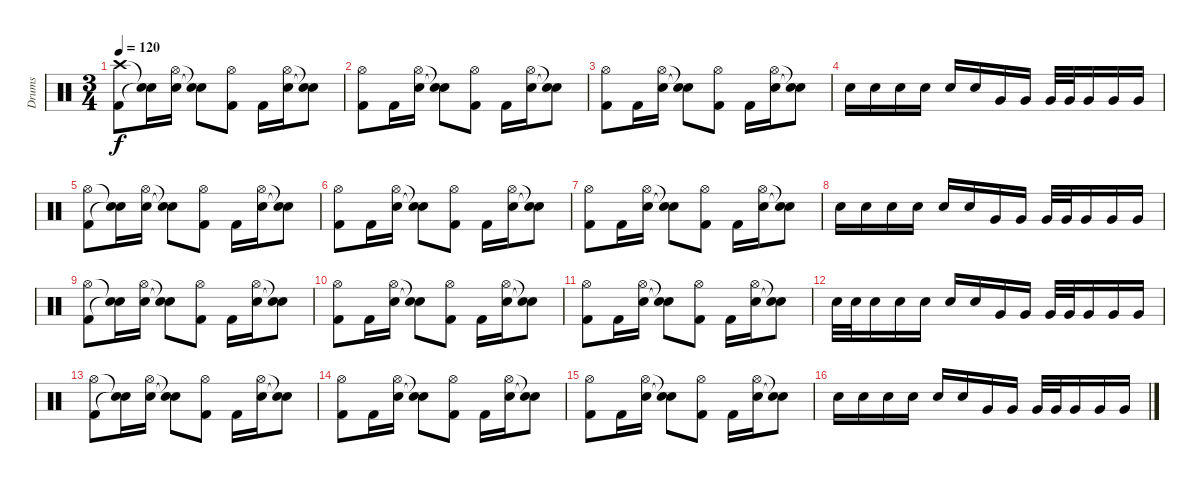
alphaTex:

\track ("Drums" "Drums") {instrument percussion}
\staff {score}
\articulation defaults
\ts (3 4)
\tempo 120
\clef neutral
\ks c
("Crash high (hit)" "Kick (hit) 2").8{dy f} ("Snare (hit)"{t} "Snare (hit)"{t}).16 ("Hi-Hat (open)" "Electric Snare (hit)").16 ("Snare (hit)"{t} "Snare (hit)"{t}).8 ("Hi-Hat (open)" "Kick (hit) 2").8 "Kick (hit) 2".16 ("Hi-Hat (open)" "Electric Snare (hit)").16 ("Snare (hit)"{t} "Snare (hit)"{t}).8 |
("Hi-Hat (open)" "Kick (hit) 2").8 "Kick (hit) 2".16 ("Hi-Hat (open)" "Electric Snare (hit)").16 ("Snare (hit)"{t} "Snare (hit)"{t}).8 ("Hi-Hat (open)" "Kick (hit) 2").8 "Kick (hit) 2".16 ("Hi-Hat (open)" "Electric Snare (hit)").16 ("Snare (hit)"{t} "Snare (hit)"{t}).8 |
("Hi-Hat (open)" "Kick (hit) 2").8 "Kick (hit) 2".16 ("Hi-Hat (open)" "Electric Snare (hit)").16 ("Snare (hit)"{t} "Snare (hit)"{t}).8 ("Hi-Hat (open)" "Kick (hit) 2").8 "Kick (hit) 2".16 ("Hi-Hat (open)" "Electric Snare (hit)").16 ("Snare (hit)"{t} "Snare (hit)"{t}).8 |
"Electric Snare (hit)".16 "Electric Snare (hit)".16 "Electric Snare (hit)".16 "Electric Snare (hit)".16 "Electric Snare (hit)".16 "Electric Snare (hit)".16 "Very Low Tom (hit)".16 "Very Low Tom (hit)".16 "Very Low Tom (hit)".32 "Very Low Tom (hit)".32 "Very Low Tom (hit)".16 "Very Low Tom (hit)".16 "Very Low Tom (hit)".16 |
("Hi-Hat (open)" "Kick (hit) 2").8 ("Snare (hit)"{t} "Snare (hit)"{t}).16 ("Hi-Hat (open)" "Electric Snare (hit)").16 ("Snare (hit)"{t} "Snare (hit)"{t}).8 ("Hi-Hat (open)" "Kick (hit) 2").8 "Kick (hit) 2".16 ("Hi-Hat (open)" "Electric Snare (hit)").16 ("Snare (hit)"{t} "Snare (hit)"{t}).8 |
("Hi-Hat (open)" "Kick (hit) 2").8 "Kick (hit) 2".16 ("Hi-Hat (open)" "Electric Snare (hit)").16 ("Snare (hit)"{t} "Snare (hit)"{t}).8 ("Hi-Hat (open)" "Kick (hit) 2").8 "Kick (hit) 2".16 ("Hi-Hat (open)" "Electric Snare (hit)").16 ("Snare (hit)"{t} "Snare (hit)"{t}).8 |
("Hi-Hat (open)" "Kick (hit) 2").8 "Kick (hit) 2".16 ("Hi-Hat (open)" "Electric Snare (hit)").16 ("Snare (hit)"{t} "Snare (hit)"{t}).8 ("Hi-Hat (open)" "Kick (hit) 2").8 "Kick (hit) 2".16 ("Hi-Hat (open)" "Electric Snare (hit)").16 ("Snare (hit)"{t} "Snare (hit)"{t}).8 |
"Electric Snare (hit)".16 "Electric Snare (hit)".16 "Electric Snare (hit)".16 "Electric Snare (hit)".16 "Electric Snare (hit)".16 "Electric Snare (hit)".16 "Very Low Tom (hit)".16 "Very Low Tom (hit)".16 "Very Low Tom (hit)".32 "Very Low Tom (hit)".32 "Very Low Tom (hit)".16 "Very Low Tom (hit)".16 "Very Low Tom (hit)".16 |
("Hi-Hat (open)" "Kick (hit) 2").8 ("Snare (hit)"{t} "Snare (hit)"{t}).16 ("Hi-Hat (open)" "Electric Snare (hit)").16 ("Snare (hit)"{t} "Snare (hit)"{t}).8 ("Hi-Hat (open)" "Kick (hit) 2").8 "Kick (hit) 2".16 ("Hi-Hat (open)" "Electric Snare (hit)").16 ("Snare (hit)"{t} "Snare (hit)"{t}).8 |
("Hi-Hat (open)" "Kick (hit) 2").8 "Kick (hit) 2".16 ("Hi-Hat (open)" "Electric Snare (hit)").16 ("Snare (hit)"{t} "Snare (hit)"{t}).8 ("Hi-Hat (open)" "Kick (hit) 2").8 "Kick (hit) 2".16 ("Hi-Hat (open)" "Electric Snare (hit)").16 ("Snare (hit)"{t} "Snare (hit)"{t}).8 |
("Hi-Hat (open)" "Kick (hit) 2").8 "Kick (hit) 2".16 ("Hi-Hat (open)" "Electric Snare (hit)").16 ("Snare (hit)"{t} "Snare (hit)"{t}).8 ("Hi-Hat (open)" "Kick (hit) 2").8 "Kick (hit) 2".16 ("Hi-Hat (open)" "Electric Snare (hit)").16 ("Snare (hit)"{t} "Snare (hit)"{t}).8 |
"Electric Snare (hit)".32 "Electric Snare (hit)".32 "Electric Snare (hit)".16 "Electric Snare (hit)".16 "Electric Snare (hit)".16 "Electric Snare (hit)".16 "Electric Snare (hit)".16 "Very Low Tom (hit)".16 "Very Low Tom (hit)".16 "Very Low Tom (hit)".32 "Very Low Tom (hit)".32 "Very Low Tom (hit)".16 "Very Low Tom (hit)".16 "Very Low Tom (hit)".16 |
("Hi-Hat (open)" "Kick (hit) 2").8 ("Snare (hit)"{t} "Snare (hit)"{t}).16 ("Hi-Hat (open)" "Electric Snare (hit)").16 ("Snare (hit)"{t} "Snare (hit)"{t}).8 ("Hi-Hat (open)" "Kick (hit) 2").8 "Kick (hit) 2".16 ("Hi-Hat (open)" "Electric Snare (hit)").16 ("Snare (hit)"{t} "Snare (hit)"{t}).8 |
("Hi-Hat (open)" "Kick (hit) 2").8 "Kick (hit) 2".16 ("Hi-Hat (open)" "Electric Snare (hit)").16 ("Snare (hit)"{t} "Snare (hit)"{t}).8 ("Hi-Hat (open)" "Kick (hit) 2").8 "Kick (hit) 2".16 ("Hi-Hat (open)" "Electric Snare (hit)").16 ("Snare (hit)"{t} "Snare (hit)"{t}).8 |
("Hi-Hat (open)" "Kick (hit) 2").8 "Kick (hit) 2".16 ("Hi-Hat (open)" "Electric Snare (hit)").16 ("Snare (hit)"{t} "Snare (hit)"{t}).8 ("Hi-Hat (open)" "Kick (hit) 2").8 "Kick (hit) 2".16 ("Hi-Hat (open)" "Electric Snare (hit)").16 ("Snare (hit)"{t} "Snare (hit)"{t}).8 |
"Electric Snare (hit)".16 "Electric Snare (hit)".16 "Electric Snare (hit)".16 "Electric Snare (hit)".16 "Electric Snare (hit)".16 "Electric Snare (hit)".16 "Very Low Tom (hit)".16 "Very Low Tom (hit)".16 "Very Low Tom (hit)".32 "Very Low Tom (hit)".32 "Very Low Tom (hit)".16 "Very Low Tom (hit)".16 "Very Low Tom (hit)".16
